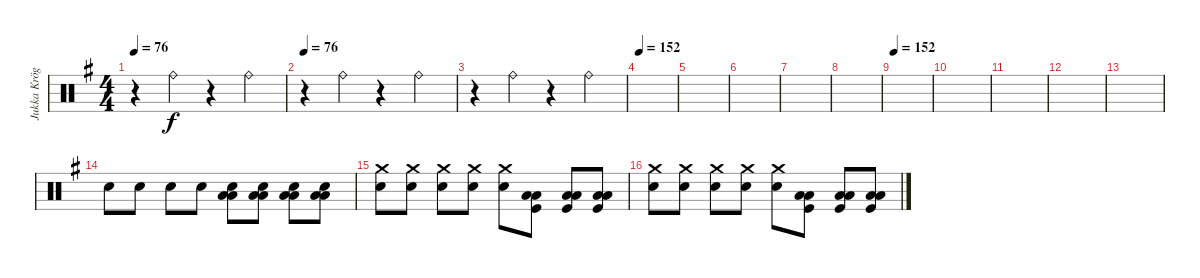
\track ("Jukka Kröger" "Jukka Krög") {instrument percussion}
\staff {score}
\articulation defaults
\ts (4 4)
\tempo 76
\clef neutral
\ks eminor
r.4{dy f} "Ride (bell)".4 r.4 "Ride (bell)".4 |
\tempo 76
r.4 "Ride (bell)".4 r.4 "Ride (bell)".4 |
r.4 "Ride (bell)".4 r.4 "Ride (bell)".4 |
\tempo 152
|
|
|
|
|
\tempo 152
|
|
|
|
|
"Snare (hit) 2".8 "Snare (hit) 2".8 "Snare (hit) 2".8 "Snare (hit) 2".8 ("Snare (hit) 2" "Low Tom (hit)" "Low Floor Tom (hit)").8 ("Snare (hit) 2" "Low Tom (hit)" "Low Floor Tom (hit)").8 ("Snare (hit) 2" "Low Tom (hit)" "Low Floor Tom (hit)").8 ("Snare (hit) 2" "Low Tom (hit)" "Low Floor Tom (hit)").8 |
("Crash medium (hit)" "Snare (hit) 2").8 ("Crash medium (hit)" "Snare (hit) 2").8 ("Crash medium (hit)" "Snare (hit) 2").8 ("Crash medium (hit)" "Snare (hit) 2").8 ("Crash medium (hit)" "Snare (hit) 2").8 ("Kick (hit)" "Low Tom (hit)" "Low Floor Tom (hit)").8 ("Kick (hit)" "Low Tom (hit)" "Low Floor Tom (hit)").8 ("Kick (hit)" "Low Tom (hit)" "Low Floor Tom (hit)").8 |
("Crash medium (hit)" "Snare (hit) 2").8 ("Crash medium (hit)" "Snare (hit) 2").8 ("Crash medium (hit)" "Snare (hit) 2").8 ("Crash medium (hit)" "Snare (hit) 2").8 ("Crash medium (hit)" "Snare (hit) 2").8 ("Kick (hit)" "Low Tom (hit)" "Low Floor Tom (hit)").8 ("Kick (hit)" "Low Tom (hit)" "Low Floor Tom (hit)").8 ("Kick (hit)" "Low Tom (hit)" "Low Floor Tom (hit)").8
